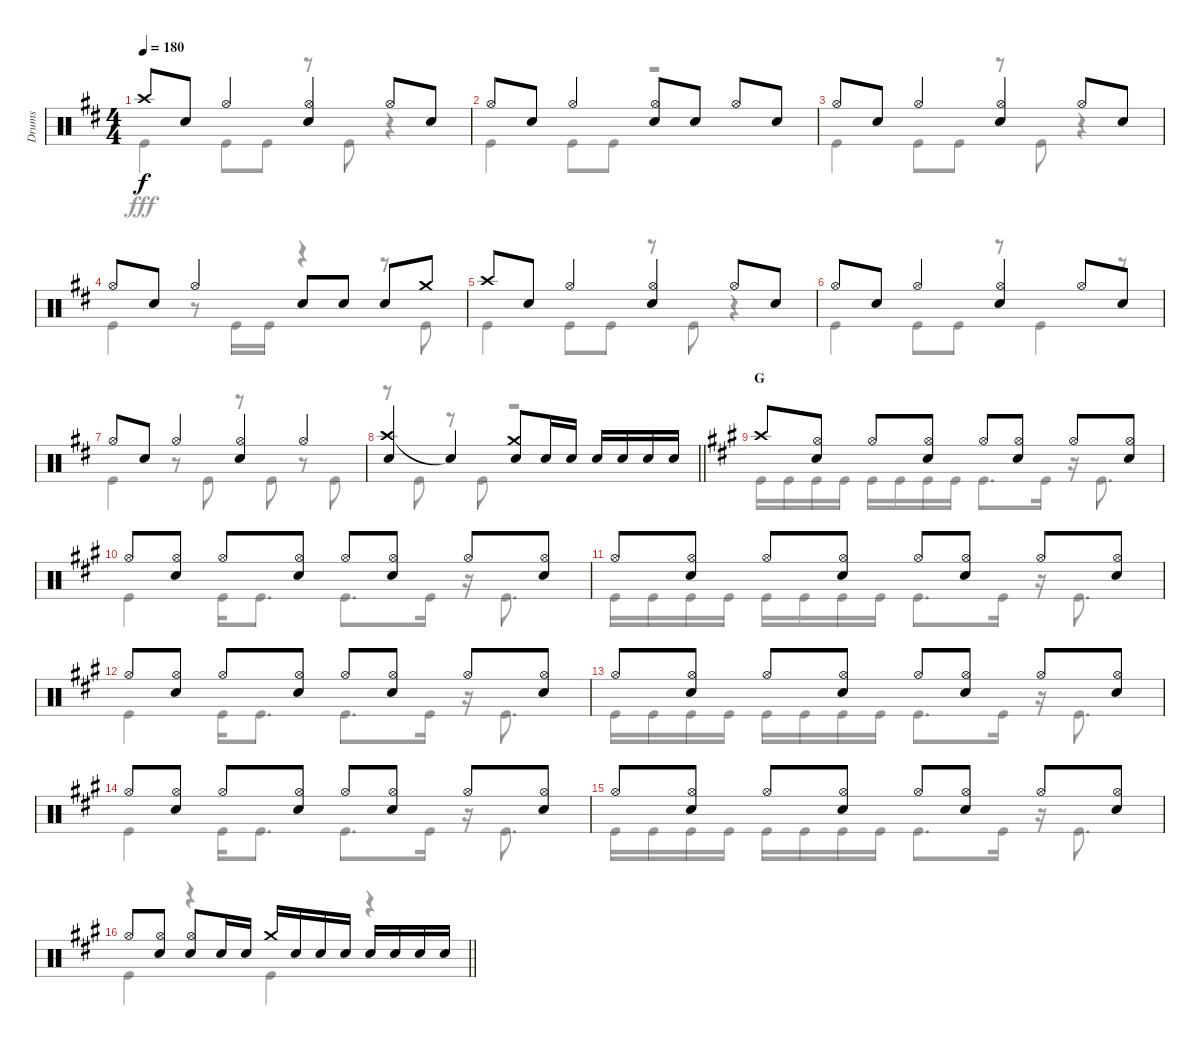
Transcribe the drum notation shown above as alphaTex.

\track ("Drums" "Drums") {instrument percussion}
\staff {score}
\articulation defaults
\voice
\ts (4 4)
\tempo 180
\clef neutral
\ks d "Crash high (hit)".8{dy f} "Snare (hit) 2".8 "Hi-Hat (open)".4
("Hi-Hat (open)" "Snare (hit) 2").4 "Hi-Hat (open)".8 "Snare (hit) 2".8 |
"Hi-Hat (open)".8 "Snare (hit) 2".8 "Hi-Hat (open)".4 ("Hi-Hat (open)" "Snare (hit) 2").8 "Snare (hit) 2".8 "Hi-Hat (open)".8 "Snare (hit) 2".8 |
"Hi-Hat (open)".8 "Snare (hit) 2".8 "Hi-Hat (open)".4 ("Hi-Hat (open)" "Snare (hit) 2").4 "Hi-Hat (open)".8 "Snare (hit) 2".8 |
"Hi-Hat (open)".8 "Snare (hit) 2".8 "Hi-Hat (open)".4 "Snare (hit) 2".8 "Snare (hit) 2".8 "Snare (hit) 2".8 "Crash medium (hit)".8 |
"Crash high (hit)".8 "Snare (hit) 2".8 "Hi-Hat (open)".4 ("Hi-Hat (open)" "Snare (hit) 2").4 "Hi-Hat (open)".8 "Snare (hit) 2".8 |
"Hi-Hat (open)".8 "Snare (hit) 2".8 "Hi-Hat (open)".4 ("Hi-Hat (open)" "Snare (hit) 2").4 "Hi-Hat (open)".8 "Snare (hit) 2".8 |
"Hi-Hat (open)".8 "Snare (hit) 2".8 "Hi-Hat (open)".4 ("Hi-Hat (open)" "Snare (hit) 2").4 "Hi-Hat (open)".4 |
\barLineRight lightlight
("Crash high (hit)" "Snare (hit) 2").4 "Snare (hit)"{t}.4 ("Crash medium (hit)" "Snare (hit) 2").8 "Snare (hit) 2".16 "Snare (hit) 2".16 "Snare (hit) 2".16 "Snare (hit) 2".16 "Snare (hit) 2".16 "Snare (hit) 2".16 |
\section ("" "G")
\ks a "Crash high (hit)".8
("Hi-Hat (open)" "Snare (hit) 2").8 "Hi-Hat (open)".8 ("Hi-Hat (open)" "Snare (hit) 2").8 "Hi-Hat (open)".8 ("Hi-Hat (open)" "Snare (hit) 2").8 "Hi-Hat (open)".8 ("Hi-Hat (open)" "Snare (hit) 2").8 |
"Hi-Hat (open)".8 ("Hi-Hat (open)" "Snare (hit) 2").8 "Hi-Hat (open)".8 ("Hi-Hat (open)" "Snare (hit) 2").8 "Hi-Hat (open)".8 ("Hi-Hat (open)" "Snare (hit) 2").8 "Hi-Hat (open)".8 ("Hi-Hat (open)" "Snare (hit) 2").8 |
"Hi-Hat (open)".8 ("Hi-Hat (open)" "Snare (hit) 2").8 "Hi-Hat (open)".8 ("Hi-Hat (open)" "Snare (hit) 2").8 "Hi-Hat (open)".8 ("Hi-Hat (open)" "Snare (hit) 2").8 "Hi-Hat (open)".8 ("Hi-Hat (open)" "Snare (hit) 2").8 |
"Hi-Hat (open)".8 ("Hi-Hat (open)" "Snare (hit) 2").8 "Hi-Hat (open)".8 ("Hi-Hat (open)" "Snare (hit) 2").8 "Hi-Hat (open)".8 ("Hi-Hat (open)" "Snare (hit) 2").8 "Hi-Hat (open)".8 ("Hi-Hat (open)" "Snare (hit) 2").8 |
"Hi-Hat (open)".8 ("Hi-Hat (open)" "Snare (hit) 2").8 "Hi-Hat (open)".8 ("Hi-Hat (open)" "Snare (hit) 2").8 "Hi-Hat (open)".8 ("Hi-Hat (open)" "Snare (hit) 2").8 "Hi-Hat (open)".8 ("Hi-Hat (open)" "Snare (hit) 2").8 |
"Hi-Hat (open)".8 ("Hi-Hat (open)" "Snare (hit) 2").8 "Hi-Hat (open)".8 ("Hi-Hat (open)" "Snare (hit) 2").8 "Hi-Hat (open)".8 ("Hi-Hat (open)" "Snare (hit) 2").8 "Hi-Hat (open)".8 ("Hi-Hat (open)" "Snare (hit) 2").8 |
"Hi-Hat (open)".8 ("Hi-Hat (open)" "Snare (hit) 2").8 "Hi-Hat (open)".8 ("Hi-Hat (open)" "Snare (hit) 2").8 "Hi-Hat (open)".8 ("Hi-Hat (open)" "Snare (hit) 2").8 "Hi-Hat (open)".8 ("Hi-Hat (open)" "Snare (hit) 2").8 |
\barLineRight lightlight "Hi-Hat (open)".8
("Hi-Hat (open)" "Snare (hit) 2").8 ("Hi-Hat (open)" "Snare (hit) 2").8 "Snare (hit) 2".16 "Snare (hit) 2".16 "Crash medium (hit)".16 "Snare (hit) 2".16 "Snare (hit) 2".16 "Snare (hit) 2".16 "Snare (hit) 2".16 "Snare (hit) 2".16 "Snare (hit) 2".16 "Snare (hit) 2".16
\voice
\clef neutral
\ottava regular
\simile none
\ks d "Kick (hit)".4{dy fff} "Kick (hit)".8 "Kick (hit)".8
r.8 "Kick (hit)".8 r.4 |
"Kick (hit)".4 "Kick (hit)".8 "Kick (hit)".8 r.2 |
"Kick (hit)".4 "Kick (hit)".8 "Kick (hit)".8 r.8 "Kick (hit)".8 r.4 |
"Kick (hit)".4 r.8 "Kick (hit)".16 "Kick (hit)".16 r.4 r.8 "Kick (hit)".8 |
"Kick (hit)".4 "Kick (hit)".8 "Kick (hit)".8 r.8 "Kick (hit)".8 r.4 |
"Kick (hit)".4 "Kick (hit)".8 "Kick (hit)".8 r.8 "Kick (hit)".4 r.8 |
"Kick (hit)".4 r.8 "Kick (hit)".8 r.8 "Kick (hit)".8 r.8 "Kick (hit)".8 |
\barLineRight lightlight
r.8 "Kick (hit)".8 r.8 "Kick (hit)".8 r.2 |
\ks a "Kick (hit)".16 "Kick (hit)".16 "Kick (hit)".16 "Kick (hit)".16 "Kick (hit)".16 "Kick (hit)".16 "Kick (hit)".16 "Kick (hit)".16 "Kick (hit)".8{d} "Kick (hit)".16
r.16 "Kick (hit)".8{d} |
"Kick (hit)".4 "Kick (hit)".16 "Kick (hit)".8{d} "Kick (hit)".8{d} "Kick (hit)".16 r.16 "Kick (hit)".8{d} |
"Kick (hit)".16 "Kick (hit)".16 "Kick (hit)".16 "Kick (hit)".16 "Kick (hit)".16 "Kick (hit)".16 "Kick (hit)".16 "Kick (hit)".16 "Kick (hit)".8{d} "Kick (hit)".16 r.16 "Kick (hit)".8{d} |
"Kick (hit)".4 "Kick (hit)".16 "Kick (hit)".8{d} "Kick (hit)".8{d} "Kick (hit)".16 r.16 "Kick (hit)".8{d} |
"Kick (hit)".16 "Kick (hit)".16 "Kick (hit)".16 "Kick (hit)".16 "Kick (hit)".16 "Kick (hit)".16 "Kick (hit)".16 "Kick (hit)".16 "Kick (hit)".8{d} "Kick (hit)".16 r.16 "Kick (hit)".8{d} |
"Kick (hit)".4 "Kick (hit)".16 "Kick (hit)".8{d} "Kick (hit)".8{d} "Kick (hit)".16 r.16 "Kick (hit)".8{d} |
"Kick (hit)".16 "Kick (hit)".16 "Kick (hit)".16 "Kick (hit)".16 "Kick (hit)".16 "Kick (hit)".16 "Kick (hit)".16 "Kick (hit)".16 "Kick (hit)".8{d} "Kick (hit)".16 r.16 "Kick (hit)".8{d} |
\barLineRight lightlight "Kick (hit)".4
r.4 "Kick (hit)".4 r.4
